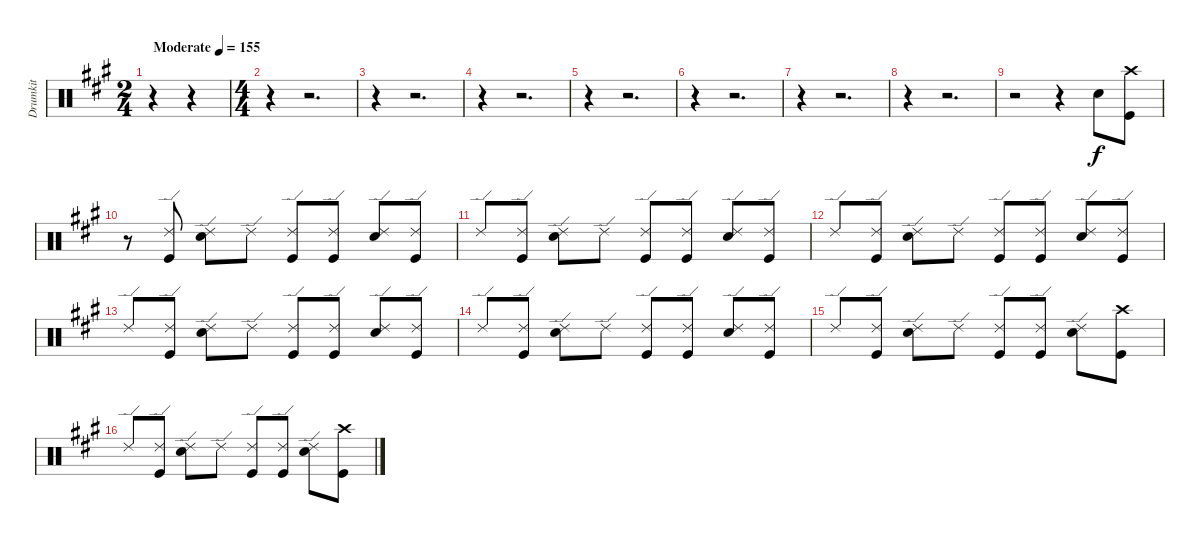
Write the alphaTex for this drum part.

\track ("Drumkit" "Drumkit") {instrument percussion}
\staff {score}
\articulation defaults
\ts (2 4)
\tempo (155 "Moderate")
\clef neutral
\ks a
r.4{dy f} r.4 |
\ts (4 4)
r.4 r.2{d} |
r.4 r.2{d} |
r.4 r.2{d} |
r.4 r.2{d} |
r.4 r.2{d} |
r.4 r.2{d} |
r.4 r.2{d} |
r.2 r.4 "Snare (hit) 2".8 ("Crash high (hit)" "Kick (hit)").8 |
r.8 ("Ride (edge) 2" "Kick (hit)").8 ("Ride (edge) 2" "Snare (hit) 2").8 "Ride (edge) 2".8 ("Ride (edge) 2" "Kick (hit)").8 ("Ride (edge) 2" "Kick (hit)").8 ("Ride (edge) 2" "Snare (hit) 2").8 ("Ride (edge) 2" "Kick (hit)").8 |
"Ride (edge) 2".8 ("Ride (edge) 2" "Kick (hit)").8 ("Ride (edge) 2" "Snare (hit) 2").8 "Ride (edge) 2".8 ("Ride (edge) 2" "Kick (hit)").8 ("Ride (edge) 2" "Kick (hit)").8 ("Ride (edge) 2" "Snare (hit) 2").8 ("Ride (edge) 2" "Kick (hit)").8 |
"Ride (edge) 2".8 ("Ride (edge) 2" "Kick (hit)").8 ("Ride (edge) 2" "Snare (hit) 2").8 "Ride (edge) 2".8 ("Ride (edge) 2" "Kick (hit)").8 ("Ride (edge) 2" "Kick (hit)").8 ("Ride (edge) 2" "Snare (hit) 2").8 ("Ride (edge) 2" "Kick (hit)").8 |
"Ride (edge) 2".8 ("Ride (edge) 2" "Kick (hit)").8 ("Ride (edge) 2" "Snare (hit) 2").8 "Ride (edge) 2".8 ("Ride (edge) 2" "Kick (hit)").8 ("Ride (edge) 2" "Kick (hit)").8 ("Ride (edge) 2" "Snare (hit) 2").8 ("Ride (edge) 2" "Kick (hit)").8 |
"Ride (edge) 2".8 ("Ride (edge) 2" "Kick (hit)").8 ("Ride (edge) 2" "Snare (hit) 2").8 "Ride (edge) 2".8 ("Ride (edge) 2" "Kick (hit)").8 ("Ride (edge) 2" "Kick (hit)").8 ("Ride (edge) 2" "Snare (hit) 2").8 ("Ride (edge) 2" "Kick (hit)").8 |
"Ride (edge) 2".8 ("Ride (edge) 2" "Kick (hit)").8 ("Ride (edge) 2" "Snare (hit) 2").8 "Ride (edge) 2".8 ("Ride (edge) 2" "Kick (hit)").8 ("Ride (edge) 2" "Kick (hit)").8 ("Ride (edge) 2" "Snare (hit) 2").8 ("Crash high (hit)" "Kick (hit)").8 |
"Ride (edge) 2".8 ("Ride (edge) 2" "Kick (hit)").8 ("Ride (edge) 2" "Snare (hit) 2").8 "Ride (edge) 2".8 ("Ride (edge) 2" "Kick (hit)").8 ("Ride (edge) 2" "Kick (hit)").8 ("Ride (edge) 2" "Snare (hit) 2").8 ("Crash high (hit)" "Kick (hit)").8
